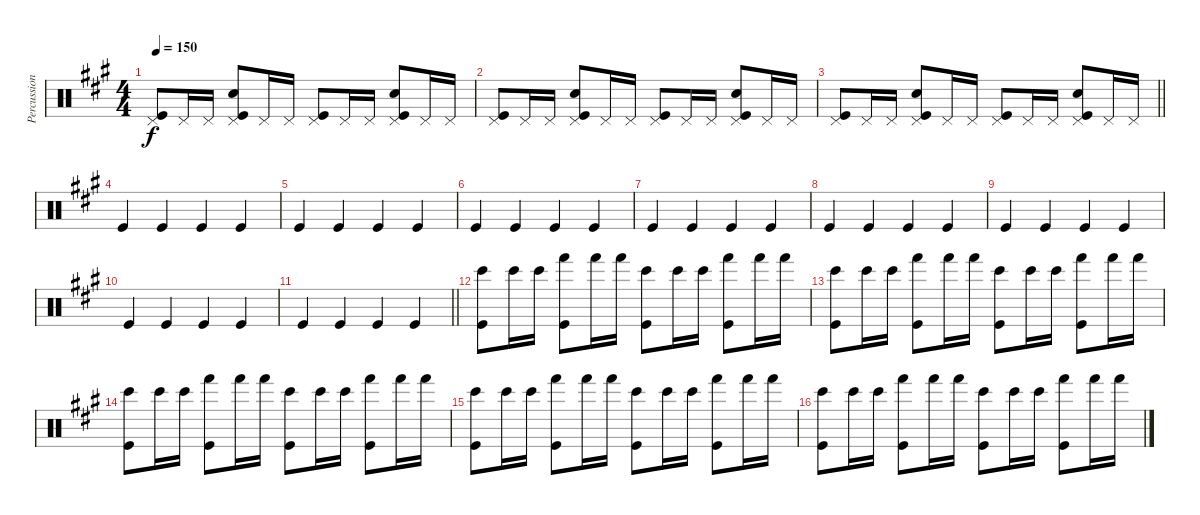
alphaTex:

\track ("Percussions" "Percussion") {instrument percussion}
\staff {score}
\articulation defaults
\ts (4 4)
\tempo 150
\clef neutral
\ks a
("Kick (hit)" "Pedal Hi-Hat (hit)").8{dy f} "Pedal Hi-Hat (hit)".16 "Pedal Hi-Hat (hit)".16 ("Snare (hit) 2" "Kick (hit)" "Pedal Hi-Hat (hit)").8 "Pedal Hi-Hat (hit)".16 "Pedal Hi-Hat (hit)".16 ("Kick (hit)" "Pedal Hi-Hat (hit)").8 "Pedal Hi-Hat (hit)".16 "Pedal Hi-Hat (hit)".16 ("Snare (hit) 2" "Kick (hit)" "Pedal Hi-Hat (hit)").8 "Pedal Hi-Hat (hit)".16 "Pedal Hi-Hat (hit)".16 |
("Kick (hit)" "Pedal Hi-Hat (hit)").8 "Pedal Hi-Hat (hit)".16 "Pedal Hi-Hat (hit)".16 ("Snare (hit) 2" "Kick (hit)" "Pedal Hi-Hat (hit)").8 "Pedal Hi-Hat (hit)".16 "Pedal Hi-Hat (hit)".16 ("Kick (hit)" "Pedal Hi-Hat (hit)").8 "Pedal Hi-Hat (hit)".16 "Pedal Hi-Hat (hit)".16 ("Snare (hit) 2" "Kick (hit)" "Pedal Hi-Hat (hit)").8 "Pedal Hi-Hat (hit)".16 "Pedal Hi-Hat (hit)".16 |
\barLineRight lightlight
("Kick (hit)" "Pedal Hi-Hat (hit)").8 "Pedal Hi-Hat (hit)".16 "Pedal Hi-Hat (hit)".16 ("Snare (hit) 2" "Kick (hit)" "Pedal Hi-Hat (hit)").8 "Pedal Hi-Hat (hit)".16 "Pedal Hi-Hat (hit)".16 ("Kick (hit)" "Pedal Hi-Hat (hit)").8 "Pedal Hi-Hat (hit)".16 "Pedal Hi-Hat (hit)".16 ("Snare (hit) 2" "Kick (hit)" "Pedal Hi-Hat (hit)").8 "Pedal Hi-Hat (hit)".16 "Pedal Hi-Hat (hit)".16 |
"Kick (hit)".4 "Kick (hit)".4 "Kick (hit)".4 "Kick (hit)".4 |
"Kick (hit)".4 "Kick (hit)".4 "Kick (hit)".4 "Kick (hit)".4 |
"Kick (hit)".4 "Kick (hit)".4 "Kick (hit)".4 "Kick (hit)".4 |
"Kick (hit)".4 "Kick (hit)".4 "Kick (hit)".4 "Kick (hit)".4 |
"Kick (hit)".4 "Kick (hit)".4 "Kick (hit)".4 "Kick (hit)".4 |
"Kick (hit)".4 "Kick (hit)".4 "Kick (hit)".4 "Kick (hit)".4 |
"Kick (hit)".4 "Kick (hit)".4 "Kick (hit)".4 "Kick (hit)".4 |
\barLineRight lightlight "Kick (hit)".4 "Kick (hit)".4 "Kick (hit)".4 "Kick (hit)".4
|
("Kick (hit)" "Bongo High (hit)").8 "Bongo High (hit)".16 "Bongo High (hit)".16 ("Kick (hit)" "Hand (hit)").8 "Hand (hit)".16 "Hand (hit)".16 ("Kick (hit)" "Bongo High (hit)").8 "Bongo High (hit)".16 "Bongo High (hit)".16 ("Kick (hit)" "Hand (hit)").8 "Hand (hit)".16 "Hand (hit)".16 |
("Kick (hit)" "Bongo High (hit)").8 "Bongo High (hit)".16 "Bongo High (hit)".16 ("Kick (hit)" "Hand (hit)").8 "Hand (hit)".16 "Hand (hit)".16 ("Kick (hit)" "Bongo High (hit)").8 "Bongo High (hit)".16 "Bongo High (hit)".16 ("Kick (hit)" "Hand (hit)").8 "Hand (hit)".16 "Hand (hit)".16 |
("Kick (hit)" "Bongo High (hit)").8 "Bongo High (hit)".16 "Bongo High (hit)".16 ("Kick (hit)" "Hand (hit)").8 "Hand (hit)".16 "Hand (hit)".16 ("Kick (hit)" "Bongo High (hit)").8 "Bongo High (hit)".16 "Bongo High (hit)".16 ("Kick (hit)" "Hand (hit)").8 "Hand (hit)".16 "Hand (hit)".16 |
("Kick (hit)" "Bongo High (hit)").8 "Bongo High (hit)".16 "Bongo High (hit)".16 ("Kick (hit)" "Hand (hit)").8 "Hand (hit)".16 "Hand (hit)".16 ("Kick (hit)" "Bongo High (hit)").8 "Bongo High (hit)".16 "Bongo High (hit)".16 ("Kick (hit)" "Hand (hit)").8 "Hand (hit)".16 "Hand (hit)".16 |
("Kick (hit)" "Bongo High (hit)").8 "Bongo High (hit)".16 "Bongo High (hit)".16 ("Kick (hit)" "Hand (hit)").8 "Hand (hit)".16 "Hand (hit)".16 ("Kick (hit)" "Bongo High (hit)").8 "Bongo High (hit)".16 "Bongo High (hit)".16 ("Kick (hit)" "Hand (hit)").8 "Hand (hit)".16 "Hand (hit)".16
